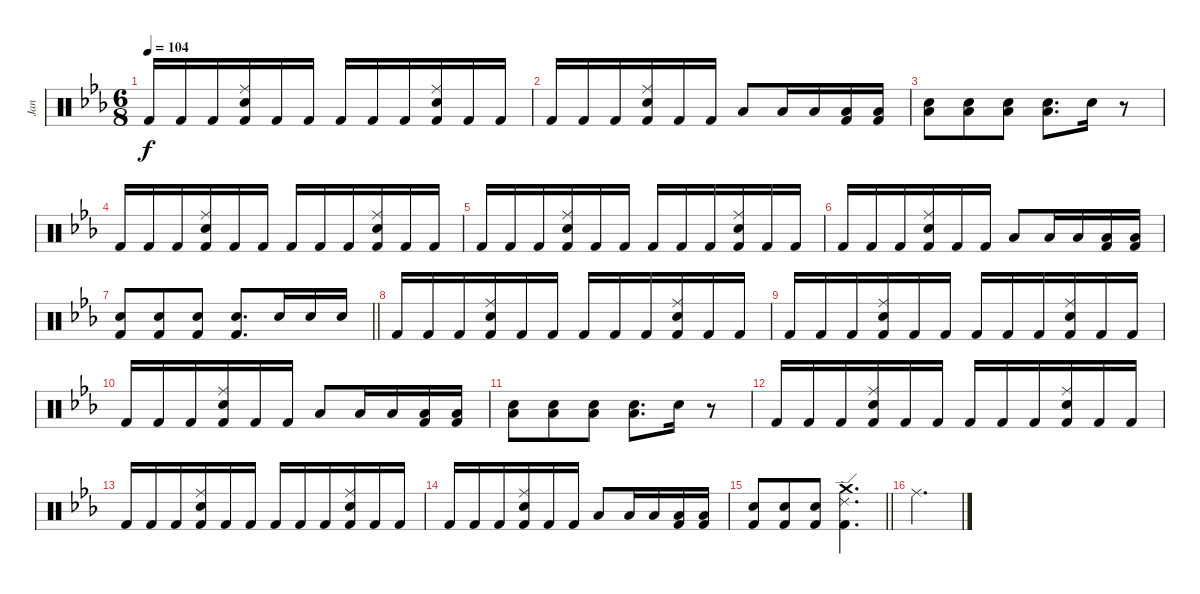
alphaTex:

\track ("Jan" "Jan") {instrument percussion}
\staff {score}
\articulation defaults
\ts (6 8)
\tempo 104
\clef neutral
\ks eb "Kick (hit) 2".16{dy f} "Kick (hit) 2".16 "Kick (hit) 2".16
("Ride (middle)" "Snare (hit) 2" "Kick (hit) 2").16 "Kick (hit) 2".16 "Kick (hit) 2".16 "Kick (hit) 2".16 "Kick (hit) 2".16 "Kick (hit) 2".16 ("Ride (middle)" "Snare (hit) 2" "Kick (hit) 2").16 "Kick (hit) 2".16 "Kick (hit) 2".16 |
"Kick (hit) 2".16 "Kick (hit) 2".16 "Kick (hit) 2".16 ("Ride (middle)" "Snare (hit) 2" "Kick (hit) 2").16 "Kick (hit) 2".16 "Kick (hit) 2".16 "Low Tom (hit)".8 "Low Tom (hit)".16 "Low Tom (hit)".16 ("Low Tom (hit)" "Kick (hit) 2").16 ("Low Tom (hit)" "Kick (hit) 2").16 |
("Low Tom (hit)" "Snare (hit) 2").8 ("Low Tom (hit)" "Snare (hit) 2").8 ("Low Tom (hit)" "Snare (hit) 2").8 ("Low Tom (hit)" "Snare (hit) 2").8{d} "Snare (hit) 2".16 r.8 |
"Kick (hit) 2".16 "Kick (hit) 2".16 "Kick (hit) 2".16 ("Ride (middle)" "Snare (hit) 2" "Kick (hit) 2").16 "Kick (hit) 2".16 "Kick (hit) 2".16 "Kick (hit) 2".16 "Kick (hit) 2".16 "Kick (hit) 2".16 ("Ride (middle)" "Snare (hit) 2" "Kick (hit) 2").16 "Kick (hit) 2".16 "Kick (hit) 2".16 |
"Kick (hit) 2".16 "Kick (hit) 2".16 "Kick (hit) 2".16 ("Ride (middle)" "Snare (hit) 2" "Kick (hit) 2").16 "Kick (hit) 2".16 "Kick (hit) 2".16 "Kick (hit) 2".16 "Kick (hit) 2".16 "Kick (hit) 2".16 ("Ride (middle)" "Snare (hit) 2" "Kick (hit) 2").16 "Kick (hit) 2".16 "Kick (hit) 2".16 |
"Kick (hit) 2".16 "Kick (hit) 2".16 "Kick (hit) 2".16 ("Ride (middle)" "Snare (hit) 2" "Kick (hit) 2").16 "Kick (hit) 2".16 "Kick (hit) 2".16 "Low Tom (hit)".8 "Low Tom (hit)".16 "Low Tom (hit)".16 ("Low Tom (hit)" "Kick (hit) 2").16 ("Low Tom (hit)" "Kick (hit) 2").16 |
\barLineRight lightlight
("Snare (hit) 2" "Kick (hit) 2").8 ("Snare (hit) 2" "Kick (hit) 2").8 ("Snare (hit) 2" "Kick (hit) 2").8 ("Snare (hit) 2" "Kick (hit) 2").8{d} "Snare (hit) 2".16 "Snare (hit) 2".16 "Snare (hit) 2".16 |
"Kick (hit) 2".16 "Kick (hit) 2".16 "Kick (hit) 2".16 ("Ride (middle)" "Snare (hit) 2" "Kick (hit) 2").16 "Kick (hit) 2".16 "Kick (hit) 2".16 "Kick (hit) 2".16 "Kick (hit) 2".16 "Kick (hit) 2".16 ("Ride (middle)" "Snare (hit) 2" "Kick (hit) 2").16 "Kick (hit) 2".16 "Kick (hit) 2".16 |
"Kick (hit) 2".16 "Kick (hit) 2".16 "Kick (hit) 2".16 ("Ride (middle)" "Snare (hit) 2" "Kick (hit) 2").16 "Kick (hit) 2".16 "Kick (hit) 2".16 "Kick (hit) 2".16 "Kick (hit) 2".16 "Kick (hit) 2".16 ("Ride (middle)" "Snare (hit) 2" "Kick (hit) 2").16 "Kick (hit) 2".16 "Kick (hit) 2".16 |
"Kick (hit) 2".16 "Kick (hit) 2".16 "Kick (hit) 2".16 ("Ride (middle)" "Snare (hit) 2" "Kick (hit) 2").16 "Kick (hit) 2".16 "Kick (hit) 2".16 "Low Tom (hit)".8 "Low Tom (hit)".16 "Low Tom (hit)".16 ("Low Tom (hit)" "Kick (hit) 2").16 ("Low Tom (hit)" "Kick (hit) 2").16 |
("Low Tom (hit)" "Snare (hit) 2").8 ("Low Tom (hit)" "Snare (hit) 2").8 ("Low Tom (hit)" "Snare (hit) 2").8 ("Low Tom (hit)" "Snare (hit) 2").8{d} "Snare (hit) 2".16 r.8 |
"Kick (hit) 2".16 "Kick (hit) 2".16 "Kick (hit) 2".16 ("Ride (middle)" "Snare (hit) 2" "Kick (hit) 2").16 "Kick (hit) 2".16 "Kick (hit) 2".16 "Kick (hit) 2".16 "Kick (hit) 2".16 "Kick (hit) 2".16 ("Ride (middle)" "Snare (hit) 2" "Kick (hit) 2").16 "Kick (hit) 2".16 "Kick (hit) 2".16 |
"Kick (hit) 2".16 "Kick (hit) 2".16 "Kick (hit) 2".16 ("Ride (middle)" "Snare (hit) 2" "Kick (hit) 2").16 "Kick (hit) 2".16 "Kick (hit) 2".16 "Kick (hit) 2".16 "Kick (hit) 2".16 "Kick (hit) 2".16 ("Ride (middle)" "Snare (hit) 2" "Kick (hit) 2").16 "Kick (hit) 2".16 "Kick (hit) 2".16 |
"Kick (hit) 2".16 "Kick (hit) 2".16 "Kick (hit) 2".16 ("Ride (middle)" "Snare (hit) 2" "Kick (hit) 2").16 "Kick (hit) 2".16 "Kick (hit) 2".16 "Low Tom (hit)".8 "Low Tom (hit)".16 "Low Tom (hit)".16 ("Low Tom (hit)" "Kick (hit) 2").16 ("Low Tom (hit)" "Kick (hit) 2").16 |
\barLineRight lightlight
("Snare (hit) 2" "Kick (hit) 2").8 ("Snare (hit) 2" "Kick (hit) 2").8 ("Snare (hit) 2" "Kick (hit) 2").8 ("Ride (edge) 2" "Crash medium (hit)" "Kick (hit) 2").4{d} |
"Ride (middle)".2{d}
